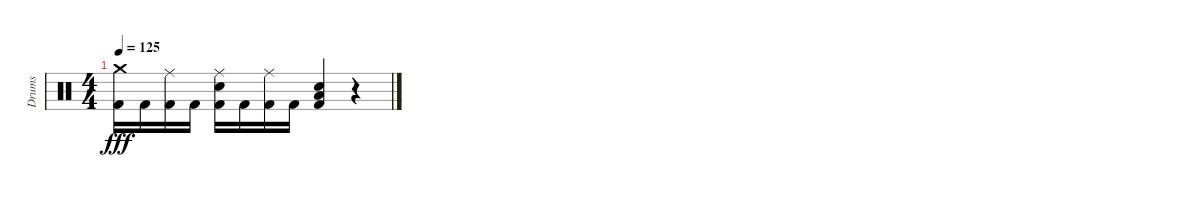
\track ("Drums" "Drums") {instrument percussion}
\staff {score}
\articulation defaults
\ts (4 4)
\tempo 125
\clef neutral
\ks c
("Crash medium (hit)" "Kick (hit) 2").16{dy fff} "Kick (hit) 2".16 ("Ride (middle)" "Kick (hit) 2").16 "Kick (hit) 2".16 ("Ride (middle)" "Electric Snare (hit)" "Kick (hit) 2").16 "Kick (hit) 2".16 ("Ride (middle)" "Kick (hit) 2").16 "Kick (hit) 2".16 ("Electric Snare (hit)" "Low Tom (hit)" "Kick (hit) 2").4 r.4
